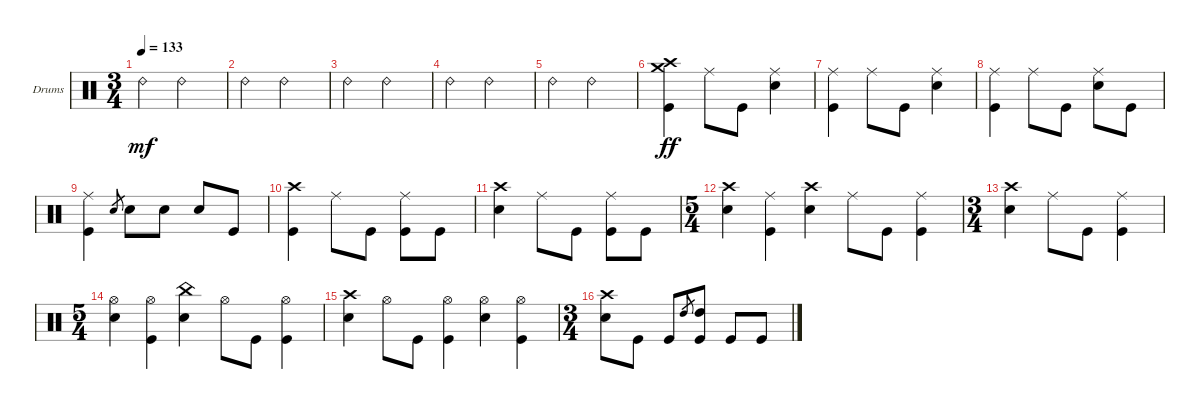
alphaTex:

\bracketExtendMode groupsimilarinstruments
\firstSystemTrackNameOrientation horizontal
\otherSystemsTrackNameOrientation horizontal
\track ("Drumkit" "Drums") {instrument percussion}
\staff {score}
\articulation defaults
\ts (3 4)
\tempo 133
\clef neutral
\ks c "Ride (bell) 2".4{dy mf} "Ride (bell) 2".2
|
"Ride (bell) 2".4 "Ride (bell) 2".2 |
"Ride (bell) 2".4 "Ride (bell) 2".2 |
"Ride (bell) 2".4 "Ride (bell) 2".2 |
"Ride (bell) 2".4 "Ride (bell) 2".2 |
("Crash high (hit)" "Crash medium (hit)" "Kick (hit)").4{dy ff} "Ride (middle)".8 "Kick (hit)".8 ("Ride (middle)" "Snare (hit) 2").4 |
("Ride (middle)" "Kick (hit)").4 "Ride (middle)".8 "Kick (hit)".8 ("Ride (middle)" "Snare (hit) 2").4 |
("Ride (middle)" "Kick (hit)").4 "Ride (middle)".8 "Kick (hit)".8 ("Ride (middle)" "Snare (hit) 2").8 "Kick (hit)".8 |
("Ride (middle)" "Kick (hit)").4 "Snare (hit) 2".8{gr} "Snare (hit) 2".8 "Snare (hit) 2".8 "Snare (hit) 2".8 "Kick (hit)".8 |
("Kick (hit)" "Crash high (hit)").4 "Ride (middle)".8 "Kick (hit)".8 ("Ride (middle)" "Kick (hit)").8 "Kick (hit)".8 |
("Snare (hit) 2" "Crash high (hit)").4 "Ride (middle)".8 "Kick (hit)".8 ("Ride (middle)" "Kick (hit)").8 "Kick (hit)".8 |
\ts (5 4)
("Snare (hit) 2" "Crash high (hit)").4 ("Ride (middle)" "Kick (hit)").4 ("Snare (hit) 2" "Crash high (hit)").4 "Ride (middle)".8 "Kick (hit)".8 ("Ride (middle)" "Kick (hit)").4 |
\ts (3 4)
("Crash high (hit)" "Snare (hit) 2").4 "Ride (middle)".8 "Kick (hit)".8 ("Ride (middle)" "Kick (hit)").4 |
\ts (5 4)
("Snare (hit) 2" "Hi-Hat (open)").4 ("Kick (hit)" "Hi-Hat (open)").4 ("Snare (hit) 2" "China (hit)").4 "Hi-Hat (open)".8 "Kick (hit)".8 ("Kick (hit)" "Hi-Hat (open)").4 |
("Snare (hit) 2" "Crash high (hit)").4 "Hi-Hat (open)".8 "Kick (hit)".8 ("Kick (hit)" "Hi-Hat (open)").4 ("Snare (hit) 2" "Hi-Hat (open)").4 ("Hi-Hat (open)" "Kick (hit)").4 |
\ts (3 4)
("Snare (hit) 2" "Crash high (hit)").8 "Kick (hit)".8 "Kick (hit)".8 "High Tom (hit)".8{gr} ("Kick (hit)" "High Tom (hit)").8 "Kick (hit)".8 "Kick (hit)".8
